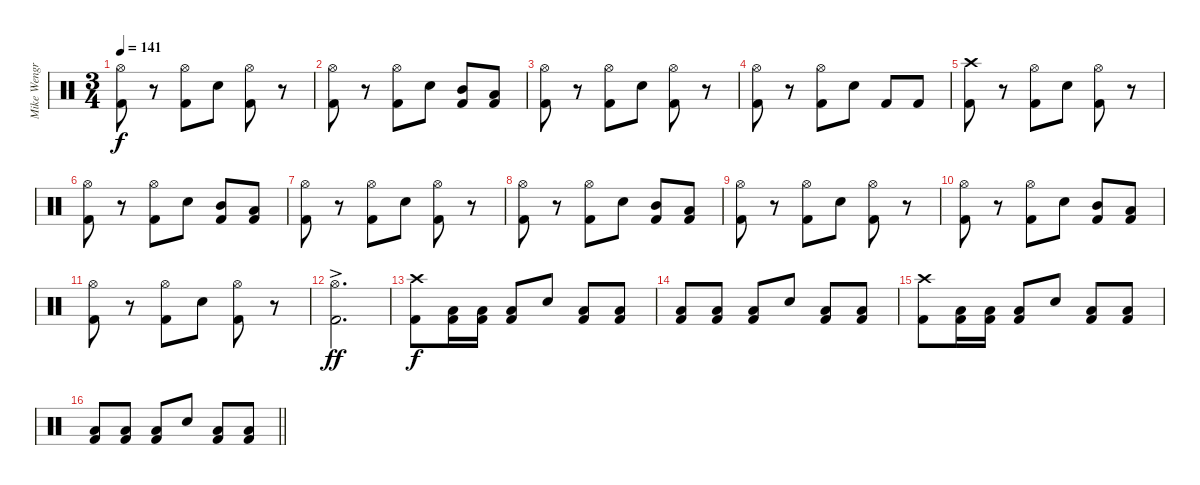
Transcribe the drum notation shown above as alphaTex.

\track ("Mike Wengren (Drums)" "Mike Wengr") {instrument percussion}
\staff {score}
\articulation defaults
\ts (3 4)
\tempo 141
\clef neutral
\ks c
("Hi-Hat (open)" "Kick (hit) 2").8{dy f} r.8 ("Hi-Hat (open)" "Kick (hit) 2").8 "Electric Snare (hit)".8 ("Hi-Hat (open)" "Kick (hit) 2").8 r.8 |
("Hi-Hat (open)" "Kick (hit) 2").8 r.8 ("Hi-Hat (open)" "Kick (hit) 2").8 "Electric Snare (hit)".8 ("Mid Tom (hit)" "Kick (hit) 2").8 ("Low Tom (hit)" "Kick (hit) 2").8 |
("Hi-Hat (open)" "Kick (hit) 2").8 r.8 ("Hi-Hat (open)" "Kick (hit) 2").8 "Electric Snare (hit)".8 ("Hi-Hat (open)" "Kick (hit) 2").8 r.8 |
("Hi-Hat (open)" "Kick (hit) 2").8 r.8 ("Hi-Hat (open)" "Kick (hit) 2").8 "Electric Snare (hit)".8 "Kick (hit) 2".8 "Kick (hit) 2".8 |
("Crash high (hit)" "Kick (hit) 2").8 r.8 ("Hi-Hat (open)" "Kick (hit) 2").8 "Electric Snare (hit)".8 ("Hi-Hat (open)" "Kick (hit) 2").8 r.8 |
("Hi-Hat (open)" "Kick (hit) 2").8 r.8 ("Hi-Hat (open)" "Kick (hit) 2").8 "Electric Snare (hit)".8 ("Mid Tom (hit)" "Kick (hit) 2").8 ("Low Tom (hit)" "Kick (hit) 2").8 |
("Hi-Hat (open)" "Kick (hit) 2").8 r.8 ("Hi-Hat (open)" "Kick (hit) 2").8 "Electric Snare (hit)".8 ("Hi-Hat (open)" "Kick (hit) 2").8 r.8 |
("Hi-Hat (open)" "Kick (hit) 2").8 r.8 ("Hi-Hat (open)" "Kick (hit) 2").8 "Electric Snare (hit)".8 ("Mid Tom (hit)" "Kick (hit) 2").8 ("Low Tom (hit)" "Kick (hit) 2").8 |
("Hi-Hat (open)" "Kick (hit) 2").8 r.8 ("Hi-Hat (open)" "Kick (hit) 2").8 "Electric Snare (hit)".8 ("Hi-Hat (open)" "Kick (hit) 2").8 r.8 |
("Hi-Hat (open)" "Kick (hit) 2").8 r.8 ("Hi-Hat (open)" "Kick (hit) 2").8 "Electric Snare (hit)".8 ("Mid Tom (hit)" "Kick (hit) 2").8 ("Low Tom (hit)" "Kick (hit) 2").8 |
("Hi-Hat (open)" "Kick (hit) 2").8 r.8 ("Hi-Hat (open)" "Kick (hit) 2").8 "Electric Snare (hit)".8 ("Hi-Hat (open)" "Kick (hit) 2").8 r.8 |
("Hi-Hat (open)"{ac} "Kick (hit) 2").2{d dy ff} |
("Crash high (hit)" "Kick (hit) 2").8{dy f} ("Low Tom (hit)" "Kick (hit) 2").16 ("Low Tom (hit)" "Kick (hit) 2").16 ("Low Tom (hit)" "Kick (hit) 2").8 "Electric Snare (hit)".8 ("Low Tom (hit)" "Kick (hit) 2").8 ("Low Tom (hit)" "Kick (hit) 2").8 |
("Low Tom (hit)" "Kick (hit) 2").8 ("Low Tom (hit)" "Kick (hit) 2").8 ("Low Tom (hit)" "Kick (hit) 2").8 "Electric Snare (hit)".8 ("Low Tom (hit)" "Kick (hit) 2").8 ("Low Tom (hit)" "Kick (hit) 2").8 |
("Crash high (hit)" "Kick (hit) 2").8 ("Low Tom (hit)" "Kick (hit) 2").16 ("Low Tom (hit)" "Kick (hit) 2").16 ("Low Tom (hit)" "Kick (hit) 2").8 "Electric Snare (hit)".8 ("Low Tom (hit)" "Kick (hit) 2").8 ("Low Tom (hit)" "Kick (hit) 2").8 |
\barLineRight lightlight
("Low Tom (hit)" "Kick (hit) 2").8 ("Low Tom (hit)" "Kick (hit) 2").8 ("Low Tom (hit)" "Kick (hit) 2").8 "Electric Snare (hit)".8 ("Low Tom (hit)" "Kick (hit) 2").8 ("Low Tom (hit)" "Kick (hit) 2").8
